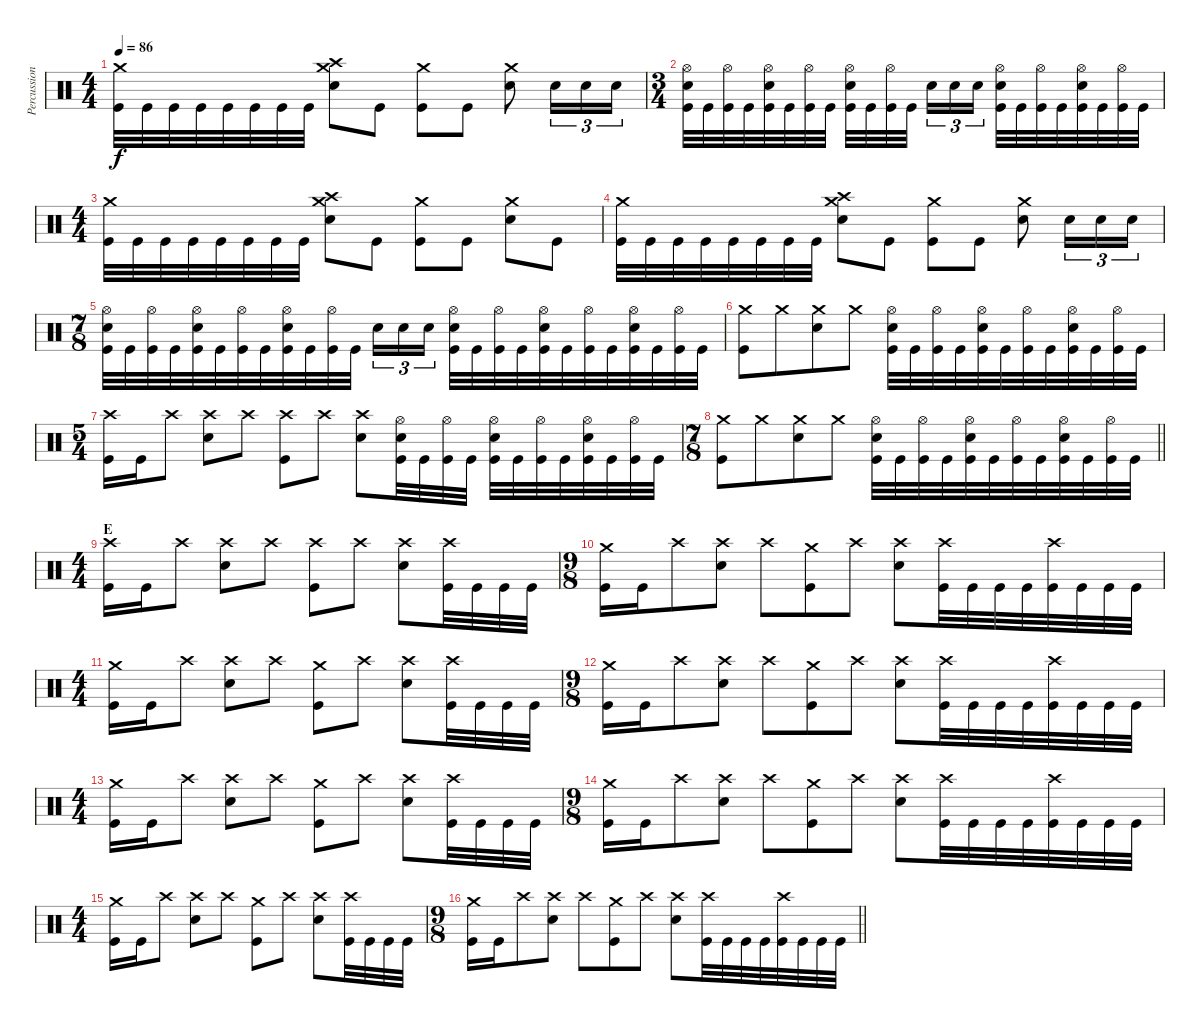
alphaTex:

\track ("Percussion" "Percussion") {instrument percussion}
\staff {score}
\articulation defaults
\ts (4 4)
\tempo 86
\clef neutral
\ks c
("Kick (hit)" "Crash medium (hit)").32{dy f} "Kick (hit)".32 "Kick (hit)".32 "Kick (hit)".32 "Kick (hit)".32 "Kick (hit)".32 "Kick (hit)".32 "Kick (hit)".32 ("Snare (hit) 2" "Crash high (hit)" "Crash medium (hit)").8 "Kick (hit)".8 ("Kick (hit)" "Crash medium (hit)").8 "Kick (hit)".8 ("Snare (hit) 2" "Crash medium (hit)").8 "Snare (hit) 2".16{tu (3 2)} "Snare (hit) 2".16{tu (3 2)} "Snare (hit) 2".16{tu (3 2)} |
\ts (3 4)
("Kick (hit)" "Snare (hit) 2" "Hi-Hat (open)").32 "Kick (hit)".32 ("Kick (hit)" "Hi-Hat (open)").32 "Kick (hit)".32 ("Kick (hit)" "Snare (hit) 2" "Hi-Hat (open)").32 "Kick (hit)".32 ("Kick (hit)" "Hi-Hat (open)").32 "Kick (hit)".32 ("Kick (hit)" "Snare (hit) 2" "Hi-Hat (open)").32 "Kick (hit)".32 ("Kick (hit)" "Hi-Hat (open)").32 "Kick (hit)".32{beam splitsecondary} "Snare (hit) 2".16{tu (3 2)} "Snare (hit) 2".16{tu (3 2)} "Snare (hit) 2".16{tu (3 2)} ("Kick (hit)" "Snare (hit) 2" "Hi-Hat (open)").32 "Kick (hit)".32 ("Kick (hit)" "Hi-Hat (open)").32 "Kick (hit)".32 ("Kick (hit)" "Snare (hit) 2" "Hi-Hat (open)").32 "Kick (hit)".32 ("Kick (hit)" "Hi-Hat (open)").32 "Kick (hit)".32 |
\ts (4 4)
("Kick (hit)" "Crash medium (hit)").32 "Kick (hit)".32 "Kick (hit)".32 "Kick (hit)".32 "Kick (hit)".32 "Kick (hit)".32 "Kick (hit)".32 "Kick (hit)".32 ("Snare (hit) 2" "Crash high (hit)" "Crash medium (hit)").8 "Kick (hit)".8 ("Kick (hit)" "Crash medium (hit)").8 "Kick (hit)".8 ("Snare (hit) 2" "Crash medium (hit)").8 "Kick (hit)".8 |
("Kick (hit)" "Crash medium (hit)").32 "Kick (hit)".32 "Kick (hit)".32 "Kick (hit)".32 "Kick (hit)".32 "Kick (hit)".32 "Kick (hit)".32 "Kick (hit)".32 ("Snare (hit) 2" "Crash high (hit)" "Crash medium (hit)").8 "Kick (hit)".8 ("Kick (hit)" "Crash medium (hit)").8 "Kick (hit)".8 ("Snare (hit) 2" "Crash medium (hit)").8 "Snare (hit) 2".16{tu (3 2)} "Snare (hit) 2".16{tu (3 2)} "Snare (hit) 2".16{tu (3 2)} |
\ts (7 8)
("Kick (hit)" "Snare (hit) 2" "Hi-Hat (open)").32 "Kick (hit)".32 ("Kick (hit)" "Hi-Hat (open)").32 "Kick (hit)".32 ("Kick (hit)" "Snare (hit) 2" "Hi-Hat (open)").32 "Kick (hit)".32 ("Kick (hit)" "Hi-Hat (open)").32 "Kick (hit)".32 ("Kick (hit)" "Snare (hit) 2" "Hi-Hat (open)").32 "Kick (hit)".32 ("Kick (hit)" "Hi-Hat (open)").32 "Kick (hit)".32 "Snare (hit) 2".16{tu (3 2)} "Snare (hit) 2".16{tu (3 2)} "Snare (hit) 2".16{tu (3 2)} ("Kick (hit)" "Snare (hit) 2" "Hi-Hat (open)").32 "Kick (hit)".32 ("Kick (hit)" "Hi-Hat (open)").32 "Kick (hit)".32 ("Kick (hit)" "Snare (hit) 2" "Hi-Hat (open)").32 "Kick (hit)".32 ("Kick (hit)" "Hi-Hat (open)").32 "Kick (hit)".32 ("Kick (hit)" "Snare (hit) 2" "Hi-Hat (open)").32 "Kick (hit)".32 ("Kick (hit)" "Hi-Hat (open)").32 "Kick (hit)".32 |
("Kick (hit)" "Crash medium (hit)").8 "Crash medium (hit)".8 ("Snare (hit) 2" "Crash medium (hit)").8 "Crash medium (hit)".8 ("Kick (hit)" "Snare (hit) 2" "Hi-Hat (open)").32 "Kick (hit)".32 ("Kick (hit)" "Hi-Hat (open)").32 "Kick (hit)".32 ("Kick (hit)" "Snare (hit) 2" "Hi-Hat (open)").32 "Kick (hit)".32 ("Kick (hit)" "Hi-Hat (open)").32 "Kick (hit)".32 ("Kick (hit)" "Snare (hit) 2" "Hi-Hat (open)").32 "Kick (hit)".32 ("Kick (hit)" "Hi-Hat (open)").32 "Kick (hit)".32 |
\ts (5 4)
("Kick (hit)" "Crash high (hit)").16 "Kick (hit)".16 "Crash high (hit)".8 ("Snare (hit) 2" "Crash high (hit)").8 "Crash high (hit)".8 ("Kick (hit)" "Crash high (hit)").8 "Crash high (hit)".8 ("Snare (hit) 2" "Crash high (hit)").8 ("Kick (hit)" "Snare (hit) 2" "Hi-Hat (open)").32 "Kick (hit)".32 ("Kick (hit)" "Hi-Hat (open)").32 "Kick (hit)".32 ("Kick (hit)" "Snare (hit) 2" "Hi-Hat (open)").32 "Kick (hit)".32 ("Kick (hit)" "Hi-Hat (open)").32 "Kick (hit)".32 ("Kick (hit)" "Snare (hit) 2" "Hi-Hat (open)").32 "Kick (hit)".32 ("Kick (hit)" "Hi-Hat (open)").32 "Kick (hit)".32 |
\ts (7 8)
\barLineRight lightlight
("Kick (hit)" "Crash medium (hit)").8 "Crash medium (hit)".8 ("Snare (hit) 2" "Crash medium (hit)").8 "Crash medium (hit)".8 ("Kick (hit)" "Snare (hit) 2" "Hi-Hat (open)").32 "Kick (hit)".32 ("Kick (hit)" "Hi-Hat (open)").32 "Kick (hit)".32 ("Kick (hit)" "Snare (hit) 2" "Hi-Hat (open)").32 "Kick (hit)".32 ("Kick (hit)" "Hi-Hat (open)").32 "Kick (hit)".32 ("Kick (hit)" "Snare (hit) 2" "Hi-Hat (open)").32 "Kick (hit)".32 ("Kick (hit)" "Hi-Hat (open)").32 "Kick (hit)".32 |
\ts (4 4)
\section ("" "E")
("Kick (hit)" "Crash high (hit)").16 "Kick (hit)".16 "Crash high (hit)".8 ("Snare (hit) 2" "Crash high (hit)").8 "Crash high (hit)".8 ("Kick (hit)" "Crash high (hit)").8 "Crash high (hit)".8 ("Snare (hit) 2" "Crash high (hit)").8 ("Kick (hit)" "Crash high (hit)").32 "Kick (hit)".32 "Kick (hit)".32 "Kick (hit)".32 |
\ts (9 8)
("Kick (hit)" "Crash medium (hit)").16 "Kick (hit)".16 "Crash high (hit)".8 ("Snare (hit) 2" "Crash high (hit)").8 "Crash high (hit)".8 ("Kick (hit)" "Crash medium (hit)").8 "Crash high (hit)".8 ("Snare (hit) 2" "Crash high (hit)").8 ("Kick (hit)" "Crash high (hit)").32 "Kick (hit)".32 "Kick (hit)".32 "Kick (hit)".32 ("Kick (hit)" "Crash high (hit)").32 "Kick (hit)".32 "Kick (hit)".32 "Kick (hit)".32 |
\ts (4 4)
("Kick (hit)" "Crash medium (hit)").16 "Kick (hit)".16 "Crash high (hit)".8 ("Snare (hit) 2" "Crash high (hit)").8 "Crash high (hit)".8 ("Kick (hit)" "Crash medium (hit)").8 "Crash high (hit)".8 ("Snare (hit) 2" "Crash high (hit)").8 ("Kick (hit)" "Crash high (hit)").32 "Kick (hit)".32 "Kick (hit)".32 "Kick (hit)".32 |
\ts (9 8)
("Kick (hit)" "Crash medium (hit)").16 "Kick (hit)".16 "Crash high (hit)".8 ("Snare (hit) 2" "Crash high (hit)").8 "Crash high (hit)".8 ("Kick (hit)" "Crash medium (hit)").8 "Crash high (hit)".8 ("Snare (hit) 2" "Crash high (hit)").8 ("Kick (hit)" "Crash high (hit)").32 "Kick (hit)".32 "Kick (hit)".32 "Kick (hit)".32 ("Kick (hit)" "Crash high (hit)").32 "Kick (hit)".32 "Kick (hit)".32 "Kick (hit)".32 |
\ts (4 4)
("Kick (hit)" "Crash medium (hit)").16 "Kick (hit)".16 "Crash high (hit)".8 ("Snare (hit) 2" "Crash high (hit)").8 "Crash high (hit)".8 ("Kick (hit)" "Crash medium (hit)").8 "Crash high (hit)".8 ("Snare (hit) 2" "Crash high (hit)").8 ("Kick (hit)" "Crash high (hit)").32 "Kick (hit)".32 "Kick (hit)".32 "Kick (hit)".32 |
\ts (9 8)
("Kick (hit)" "Crash medium (hit)").16 "Kick (hit)".16 "Crash high (hit)".8 ("Snare (hit) 2" "Crash high (hit)").8 "Crash high (hit)".8 ("Kick (hit)" "Crash medium (hit)").8 "Crash high (hit)".8 ("Snare (hit) 2" "Crash high (hit)").8 ("Kick (hit)" "Crash high (hit)").32 "Kick (hit)".32 "Kick (hit)".32 "Kick (hit)".32 ("Kick (hit)" "Crash high (hit)").32 "Kick (hit)".32 "Kick (hit)".32 "Kick (hit)".32 |
\ts (4 4)
("Kick (hit)" "Crash medium (hit)").16 "Kick (hit)".16 "Crash high (hit)".8 ("Snare (hit) 2" "Crash high (hit)").8 "Crash high (hit)".8 ("Kick (hit)" "Crash medium (hit)").8 "Crash high (hit)".8 ("Snare (hit) 2" "Crash high (hit)").8 ("Kick (hit)" "Crash high (hit)").32 "Kick (hit)".32 "Kick (hit)".32 "Kick (hit)".32 |
\ts (9 8)
\barLineRight lightlight
("Kick (hit)" "Crash medium (hit)").16 "Kick (hit)".16 "Crash high (hit)".8 ("Snare (hit) 2" "Crash high (hit)").8 "Crash high (hit)".8 ("Kick (hit)" "Crash medium (hit)").8 "Crash high (hit)".8 ("Snare (hit) 2" "Crash high (hit)").8 ("Kick (hit)" "Crash high (hit)").32 "Kick (hit)".32 "Kick (hit)".32 "Kick (hit)".32 ("Kick (hit)" "Crash high (hit)").32 "Kick (hit)".32 "Kick (hit)".32 "Kick (hit)".32
